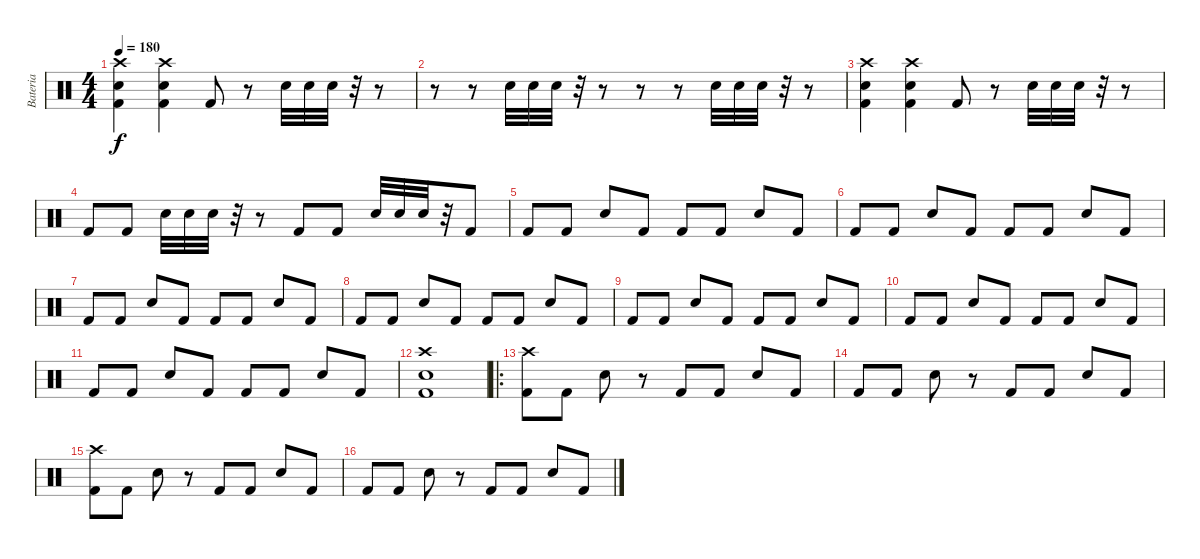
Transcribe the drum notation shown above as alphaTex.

\track ("Bateria" "Bateria") {instrument percussion}
\staff {score}
\articulation defaults
\ts (4 4)
\tempo 180
\clef neutral
\ks c
("Kick (hit) 2" "Electric Snare (hit)" "Crash high (hit)").4{dy f} ("Kick (hit) 2" "Electric Snare (hit)" "Crash high (hit)").4 "Kick (hit) 2".8 r.8 "Electric Snare (hit)".32 "Electric Snare (hit)".32 "Electric Snare (hit)".32 r.32 r.8 |
r.8 r.8 "Electric Snare (hit)".32 "Electric Snare (hit)".32 "Electric Snare (hit)".32 r.32 r.8 r.8 r.8 "Electric Snare (hit)".32 "Electric Snare (hit)".32 "Electric Snare (hit)".32 r.32 r.8 |
("Kick (hit) 2" "Electric Snare (hit)" "Crash high (hit)").4 ("Kick (hit) 2" "Electric Snare (hit)" "Crash high (hit)").4 "Kick (hit) 2".8 r.8 "Electric Snare (hit)".32 "Electric Snare (hit)".32 "Electric Snare (hit)".32 r.32 r.8 |
"Kick (hit) 2".8 "Kick (hit) 2".8 "Electric Snare (hit)".32 "Electric Snare (hit)".32 "Electric Snare (hit)".32 r.32 r.8 "Kick (hit) 2".8 "Kick (hit) 2".8 "Electric Snare (hit)".32 "Electric Snare (hit)".32 "Electric Snare (hit)".32 r.32 "Kick (hit) 2".8 |
"Kick (hit) 2".8 "Kick (hit) 2".8 "Electric Snare (hit)".8 "Kick (hit) 2".8 "Kick (hit) 2".8 "Kick (hit) 2".8 "Electric Snare (hit)".8 "Kick (hit) 2".8 |
"Kick (hit) 2".8 "Kick (hit) 2".8 "Electric Snare (hit)".8 "Kick (hit) 2".8 "Kick (hit) 2".8 "Kick (hit) 2".8 "Electric Snare (hit)".8 "Kick (hit) 2".8 |
"Kick (hit) 2".8 "Kick (hit) 2".8 "Electric Snare (hit)".8 "Kick (hit) 2".8 "Kick (hit) 2".8 "Kick (hit) 2".8 "Electric Snare (hit)".8 "Kick (hit) 2".8 |
"Kick (hit) 2".8 "Kick (hit) 2".8 "Electric Snare (hit)".8 "Kick (hit) 2".8 "Kick (hit) 2".8 "Kick (hit) 2".8 "Electric Snare (hit)".8 "Kick (hit) 2".8 |
"Kick (hit) 2".8 "Kick (hit) 2".8 "Electric Snare (hit)".8 "Kick (hit) 2".8 "Kick (hit) 2".8 "Kick (hit) 2".8 "Electric Snare (hit)".8 "Kick (hit) 2".8 |
"Kick (hit) 2".8 "Kick (hit) 2".8 "Electric Snare (hit)".8 "Kick (hit) 2".8 "Kick (hit) 2".8 "Kick (hit) 2".8 "Electric Snare (hit)".8 "Kick (hit) 2".8 |
"Kick (hit) 2".8 "Kick (hit) 2".8 "Electric Snare (hit)".8 "Kick (hit) 2".8 "Kick (hit) 2".8 "Kick (hit) 2".8 "Electric Snare (hit)".8 "Kick (hit) 2".8 |
("Kick (hit) 2" "Electric Snare (hit)" "Crash high (hit)").1 |
\ro
("Kick (hit) 2" "Crash high (hit)").8 "Kick (hit) 2".8 "Electric Snare (hit)".8 r.8 "Kick (hit) 2".8 "Kick (hit) 2".8 "Electric Snare (hit)".8 "Kick (hit) 2".8 |
"Kick (hit) 2".8 "Kick (hit) 2".8 "Electric Snare (hit)".8 r.8 "Kick (hit) 2".8 "Kick (hit) 2".8 "Electric Snare (hit)".8 "Kick (hit) 2".8 |
("Kick (hit) 2" "Crash high (hit)").8 "Kick (hit) 2".8 "Electric Snare (hit)".8 r.8 "Kick (hit) 2".8 "Kick (hit) 2".8 "Electric Snare (hit)".8 "Kick (hit) 2".8 |
"Kick (hit) 2".8 "Kick (hit) 2".8 "Electric Snare (hit)".8 r.8 "Kick (hit) 2".8 "Kick (hit) 2".8 "Electric Snare (hit)".8 "Kick (hit) 2".8
